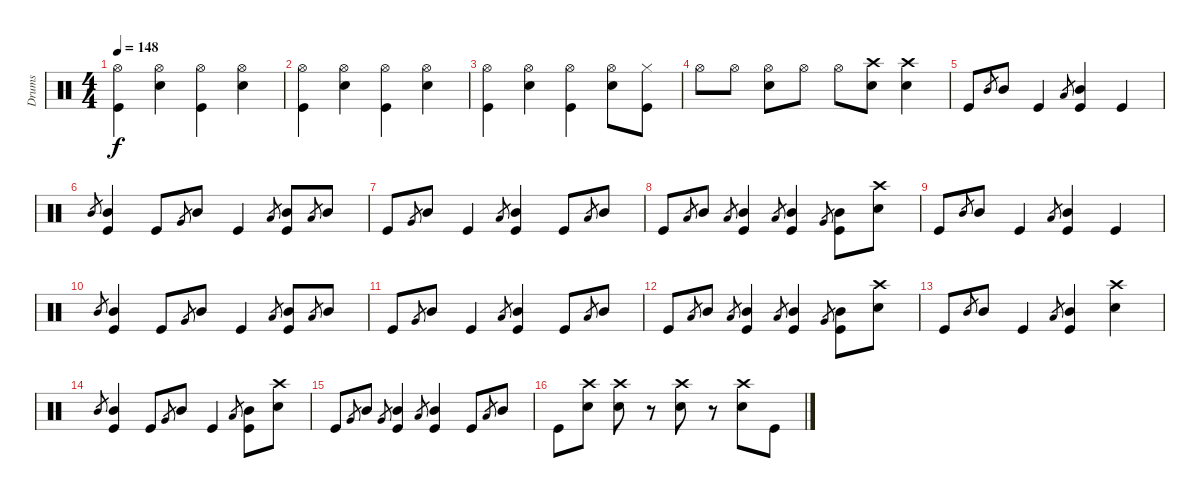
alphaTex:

\track ("Drums" "Drums") {instrument percussion}
\staff {score}
\articulation defaults
\ts (4 4)
\tempo 148
\clef neutral
\ks c
("Hi-Hat (open)" "Kick (hit)").4{dy f} ("Hi-Hat (open)" "Snare (hit) 2").4 ("Hi-Hat (open)" "Kick (hit)").4 ("Hi-Hat (open)" "Snare (hit) 2").4 |
("Hi-Hat (open)" "Kick (hit)").4 ("Hi-Hat (open)" "Snare (hit) 2").4 ("Hi-Hat (open)" "Kick (hit)").4 ("Hi-Hat (open)" "Snare (hit) 2").4 |
("Hi-Hat (open)" "Kick (hit)").4 ("Hi-Hat (open)" "Snare (hit) 2").4 ("Hi-Hat (open)" "Kick (hit)").4 ("Hi-Hat (open)" "Snare (hit) 2").8 ("Hi-Hat (closed)" "Kick (hit)").8 |
"Hi-Hat (open)".8 "Hi-Hat (open)".8 ("Hi-Hat (open)" "Snare (hit) 2").8 "Hi-Hat (open)".8 "Hi-Hat (open)".8 ("Crash high (hit)" "Snare (hit) 2").8 ("Crash high (hit)" "Snare (hit) 2").4 |
"Kick (hit)".8 "Mid Tom (hit)".8{gr} "Mid Tom (hit)".8 "Kick (hit)".4 "Low Tom (hit)".8{gr} ("Kick (hit)" "Mid Tom (hit)").4 "Kick (hit)".4 |
"Mid Tom (hit)".8{gr} ("Kick (hit)" "Mid Tom (hit)").4 "Kick (hit)".8 "Very Low Tom (hit)".8{gr} "Mid Tom (hit)".8 "Kick (hit)".4 "Low Tom (hit)".8{gr} ("Kick (hit)" "Mid Tom (hit)").8 "Low Tom (hit)".8{gr} "Mid Tom (hit)".8 |
"Kick (hit)".8 "Very Low Tom (hit)".8{gr} "Mid Tom (hit)".8 "Kick (hit)".4 "Low Tom (hit)".8{gr} ("Kick (hit)" "Mid Tom (hit)").4 "Kick (hit)".8 "Low Tom (hit)".8{gr} "Mid Tom (hit)".8 |
"Kick (hit)".8 "Low Tom (hit)".8{gr} "Mid Tom (hit)".8 "Low Tom (hit)".8{gr} ("Kick (hit)" "Mid Tom (hit)").4 "Low Tom (hit)".8{gr} ("Kick (hit)" "Mid Tom (hit)").4 "Very Low Tom (hit)".8{gr} ("Kick (hit)" "Mid Tom (hit)").8 ("Crash high (hit)" "Snare (hit) 2").8 |
"Kick (hit)".8 "Mid Tom (hit)".8{gr} "Mid Tom (hit)".8 "Kick (hit)".4 "Low Tom (hit)".8{gr} ("Kick (hit)" "Mid Tom (hit)").4 "Kick (hit)".4 |
"Mid Tom (hit)".8{gr} ("Kick (hit)" "Mid Tom (hit)").4 "Kick (hit)".8 "Very Low Tom (hit)".8{gr} "Mid Tom (hit)".8 "Kick (hit)".4 "Low Tom (hit)".8{gr} ("Kick (hit)" "Mid Tom (hit)").8 "Low Tom (hit)".8{gr} "Mid Tom (hit)".8 |
"Kick (hit)".8 "Very Low Tom (hit)".8{gr} "Mid Tom (hit)".8 "Kick (hit)".4 "Low Tom (hit)".8{gr} ("Kick (hit)" "Mid Tom (hit)").4 "Kick (hit)".8 "Low Tom (hit)".8{gr} "Mid Tom (hit)".8 |
"Kick (hit)".8 "Low Tom (hit)".8{gr} "Mid Tom (hit)".8 "Low Tom (hit)".8{gr} ("Kick (hit)" "Mid Tom (hit)").4 "Low Tom (hit)".8{gr} ("Kick (hit)" "Mid Tom (hit)").4 "Very Low Tom (hit)".8{gr} ("Kick (hit)" "Mid Tom (hit)").8 ("Crash high (hit)" "Snare (hit) 2").8 |
"Kick (hit)".8 "Mid Tom (hit)".8{gr} "Mid Tom (hit)".8 "Kick (hit)".4 "Low Tom (hit)".8{gr} ("Kick (hit)" "Mid Tom (hit)").4 ("Crash high (hit)" "Snare (hit) 2").4 |
"Mid Tom (hit)".8{gr} ("Kick (hit)" "Mid Tom (hit)").4 "Kick (hit)".8 "Very Low Tom (hit)".8{gr} "Mid Tom (hit)".8 "Kick (hit)".4 "Low Tom (hit)".8{gr} ("Kick (hit)" "Mid Tom (hit)").8 ("Crash high (hit)" "Snare (hit) 2").8 |
"Kick (hit)".8 "Very Low Tom (hit)".8{gr} "Mid Tom (hit)".8 "Very Low Tom (hit)".8{gr} ("Kick (hit)" "Mid Tom (hit)").4 "Low Tom (hit)".8{gr} ("Kick (hit)" "Mid Tom (hit)").4 "Kick (hit)".8 "Low Tom (hit)".8{gr} "Mid Tom (hit)".8 |
"Kick (hit)".8 ("Crash high (hit)" "Snare (hit) 2").8 ("Crash high (hit)" "Snare (hit) 2").8 r.8 ("Crash high (hit)" "Snare (hit) 2").8 r.8 ("Crash high (hit)" "Snare (hit) 2").8 "Kick (hit)".8
